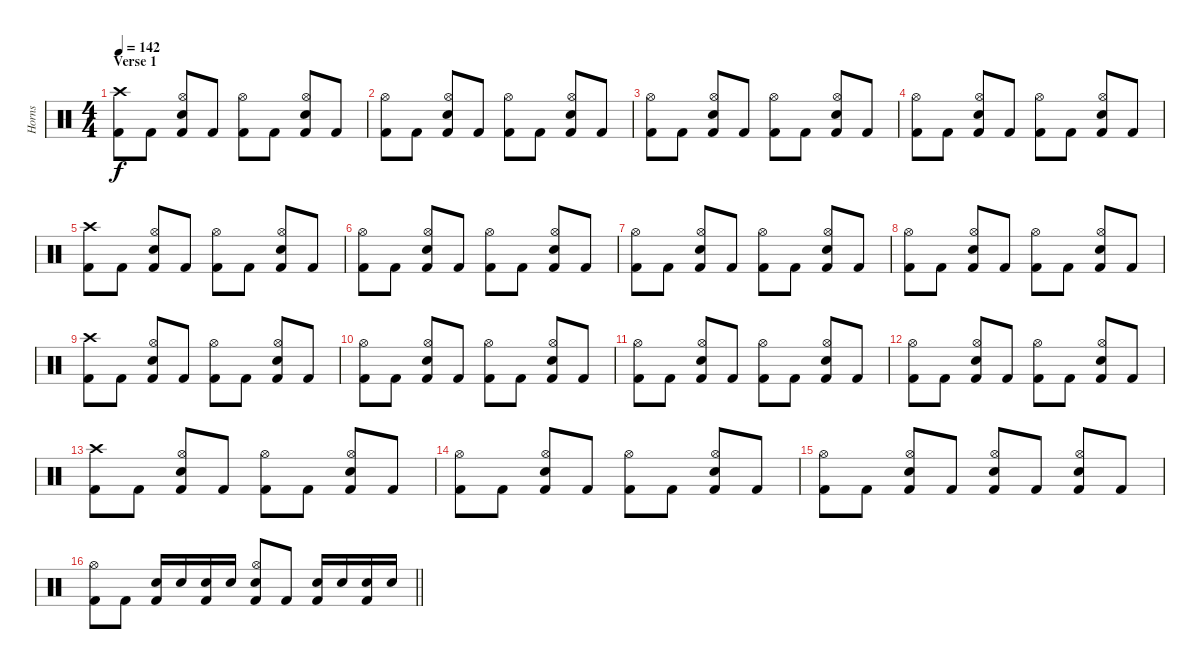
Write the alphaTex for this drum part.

\track ("Horns" "Horns") {instrument percussion}
\staff {score}
\articulation defaults
\ts (4 4)
\section ("" "Verse 1")
\tempo 142
\clef neutral
\ks c
("Crash high (hit)" "Kick (hit) 2").8{dy f} "Kick (hit) 2".8 ("Hi-Hat (open)" "Snare (hit) 2" "Kick (hit) 2").8 "Kick (hit) 2".8 ("Hi-Hat (open)" "Kick (hit) 2").8 "Kick (hit) 2".8 ("Hi-Hat (open)" "Snare (hit) 2" "Kick (hit) 2").8 "Kick (hit) 2".8 |
("Hi-Hat (open)" "Kick (hit) 2").8 "Kick (hit) 2".8 ("Hi-Hat (open)" "Snare (hit) 2" "Kick (hit) 2").8 "Kick (hit) 2".8 ("Hi-Hat (open)" "Kick (hit) 2").8 "Kick (hit) 2".8 ("Hi-Hat (open)" "Snare (hit) 2" "Kick (hit) 2").8 "Kick (hit) 2".8 |
("Hi-Hat (open)" "Kick (hit) 2").8 "Kick (hit) 2".8 ("Hi-Hat (open)" "Snare (hit) 2" "Kick (hit) 2").8 "Kick (hit) 2".8 ("Hi-Hat (open)" "Kick (hit) 2").8 "Kick (hit) 2".8 ("Hi-Hat (open)" "Snare (hit) 2" "Kick (hit) 2").8 "Kick (hit) 2".8 |
("Hi-Hat (open)" "Kick (hit) 2").8 "Kick (hit) 2".8 ("Hi-Hat (open)" "Snare (hit) 2" "Kick (hit) 2").8 "Kick (hit) 2".8 ("Hi-Hat (open)" "Kick (hit) 2").8 "Kick (hit) 2".8 ("Hi-Hat (open)" "Snare (hit) 2" "Kick (hit) 2").8 "Kick (hit) 2".8 |
("Crash high (hit)" "Kick (hit) 2").8 "Kick (hit) 2".8 ("Hi-Hat (open)" "Snare (hit) 2" "Kick (hit) 2").8 "Kick (hit) 2".8 ("Hi-Hat (open)" "Kick (hit) 2").8 "Kick (hit) 2".8 ("Hi-Hat (open)" "Snare (hit) 2" "Kick (hit) 2").8 "Kick (hit) 2".8 |
("Hi-Hat (open)" "Kick (hit) 2").8 "Kick (hit) 2".8 ("Hi-Hat (open)" "Snare (hit) 2" "Kick (hit) 2").8 "Kick (hit) 2".8 ("Hi-Hat (open)" "Kick (hit) 2").8 "Kick (hit) 2".8 ("Hi-Hat (open)" "Snare (hit) 2" "Kick (hit) 2").8 "Kick (hit) 2".8 |
("Hi-Hat (open)" "Kick (hit) 2").8 "Kick (hit) 2".8 ("Hi-Hat (open)" "Snare (hit) 2" "Kick (hit) 2").8 "Kick (hit) 2".8 ("Hi-Hat (open)" "Kick (hit) 2").8 "Kick (hit) 2".8 ("Hi-Hat (open)" "Snare (hit) 2" "Kick (hit) 2").8 "Kick (hit) 2".8 |
("Hi-Hat (open)" "Kick (hit) 2").8 "Kick (hit) 2".8 ("Hi-Hat (open)" "Snare (hit) 2" "Kick (hit) 2").8 "Kick (hit) 2".8 ("Hi-Hat (open)" "Kick (hit) 2").8 "Kick (hit) 2".8 ("Hi-Hat (open)" "Snare (hit) 2" "Kick (hit) 2").8 "Kick (hit) 2".8 |
("Crash high (hit)" "Kick (hit) 2").8 "Kick (hit) 2".8 ("Hi-Hat (open)" "Snare (hit) 2" "Kick (hit) 2").8 "Kick (hit) 2".8 ("Hi-Hat (open)" "Kick (hit) 2").8 "Kick (hit) 2".8 ("Hi-Hat (open)" "Snare (hit) 2" "Kick (hit) 2").8 "Kick (hit) 2".8 |
("Hi-Hat (open)" "Kick (hit) 2").8 "Kick (hit) 2".8 ("Hi-Hat (open)" "Snare (hit) 2" "Kick (hit) 2").8 "Kick (hit) 2".8 ("Hi-Hat (open)" "Kick (hit) 2").8 "Kick (hit) 2".8 ("Hi-Hat (open)" "Snare (hit) 2" "Kick (hit) 2").8 "Kick (hit) 2".8 |
("Hi-Hat (open)" "Kick (hit) 2").8 "Kick (hit) 2".8 ("Hi-Hat (open)" "Snare (hit) 2" "Kick (hit) 2").8 "Kick (hit) 2".8 ("Hi-Hat (open)" "Kick (hit) 2").8 "Kick (hit) 2".8 ("Hi-Hat (open)" "Snare (hit) 2" "Kick (hit) 2").8 "Kick (hit) 2".8 |
("Hi-Hat (open)" "Kick (hit) 2").8 "Kick (hit) 2".8 ("Hi-Hat (open)" "Snare (hit) 2" "Kick (hit) 2").8 "Kick (hit) 2".8 ("Hi-Hat (open)" "Kick (hit) 2").8 "Kick (hit) 2".8 ("Hi-Hat (open)" "Snare (hit) 2" "Kick (hit) 2").8 "Kick (hit) 2".8 |
("Crash high (hit)" "Kick (hit) 2").8 "Kick (hit) 2".8 ("Hi-Hat (open)" "Snare (hit) 2" "Kick (hit) 2").8 "Kick (hit) 2".8 ("Hi-Hat (open)" "Kick (hit) 2").8 "Kick (hit) 2".8 ("Hi-Hat (open)" "Snare (hit) 2" "Kick (hit) 2").8 "Kick (hit) 2".8 |
("Hi-Hat (open)" "Kick (hit) 2").8 "Kick (hit) 2".8 ("Hi-Hat (open)" "Snare (hit) 2" "Kick (hit) 2").8 "Kick (hit) 2".8 ("Hi-Hat (open)" "Kick (hit) 2").8 "Kick (hit) 2".8 ("Hi-Hat (open)" "Snare (hit) 2" "Kick (hit) 2").8 "Kick (hit) 2".8 |
("Hi-Hat (open)" "Kick (hit) 2").8 "Kick (hit) 2".8 ("Hi-Hat (open)" "Snare (hit) 2" "Kick (hit) 2").8 "Kick (hit) 2".8 ("Hi-Hat (open)" "Snare (hit) 2" "Kick (hit) 2").8 "Kick (hit) 2".8 ("Hi-Hat (open)" "Snare (hit) 2" "Kick (hit) 2").8 "Kick (hit) 2".8 |
\barLineRight lightlight
("Hi-Hat (open)" "Kick (hit) 2").8 "Kick (hit) 2".8 ("Snare (hit) 2" "Kick (hit) 2").16 "Snare (hit) 2".16 ("Snare (hit) 2" "Kick (hit) 2").16 "Snare (hit) 2".16 ("Hi-Hat (open)" "Snare (hit) 2" "Kick (hit) 2").8 "Kick (hit) 2".8 ("Snare (hit) 2" "Kick (hit) 2").16 "Snare (hit) 2".16 ("Snare (hit) 2" "Kick (hit) 2").16 "Snare (hit) 2".16
